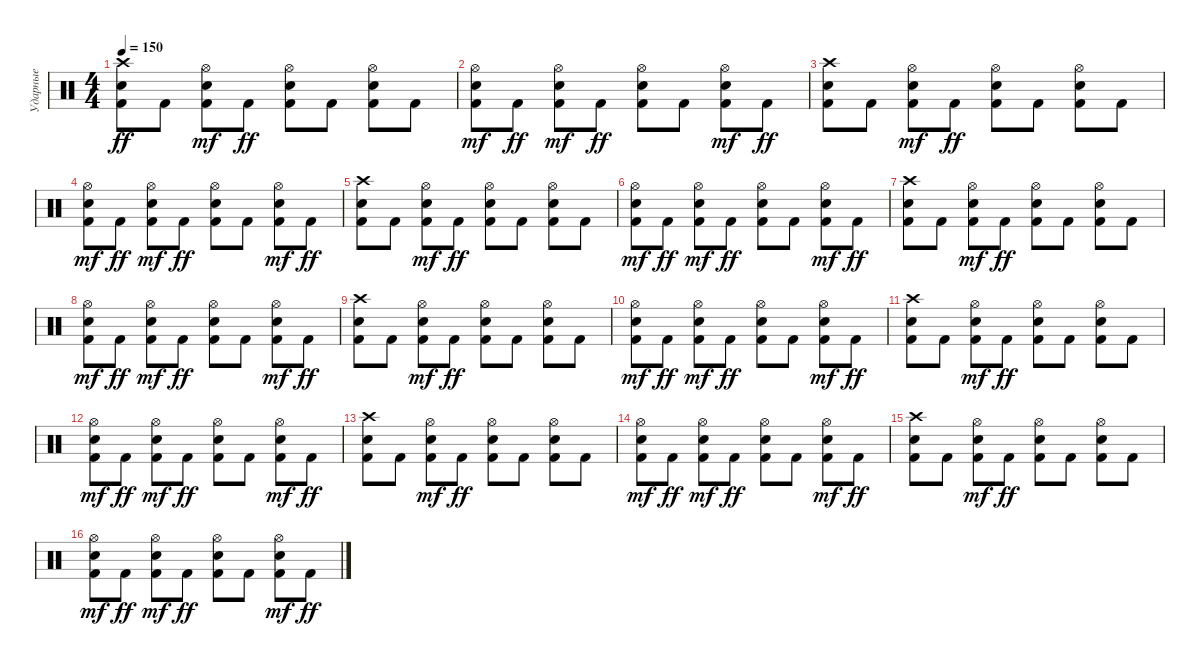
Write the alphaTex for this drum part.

\track ("Ударные" "Ударные") {instrument percussion}
\staff {score}
\articulation defaults
\ts (4 4)
\tempo 150
\clef neutral
\ks c
("Crash high (hit)" "Kick (hit) 2" "Electric Snare (hit)").8{dy ff} "Kick (hit) 2".8 ("Kick (hit) 2" "Electric Snare (hit)" "Hi-Hat (open)").8{dy mf} "Kick (hit) 2".8{dy ff} ("Hi-Hat (open)" "Kick (hit) 2" "Electric Snare (hit)").8 "Kick (hit) 2".8 ("Kick (hit) 2" "Hi-Hat (open)" "Electric Snare (hit)").8 "Kick (hit) 2".8 |
("Kick (hit) 2" "Hi-Hat (open)" "Electric Snare (hit)").8{dy mf} "Kick (hit) 2".8{dy ff} ("Electric Snare (hit)" "Kick (hit) 2" "Hi-Hat (open)").8{dy mf} "Kick (hit) 2".8{dy ff} ("Hi-Hat (open)" "Kick (hit) 2" "Electric Snare (hit)").8 "Kick (hit) 2".8 ("Electric Snare (hit)" "Kick (hit) 2" "Hi-Hat (open)").8{dy mf} "Kick (hit) 2".8{dy ff} |
("Crash high (hit)" "Kick (hit) 2" "Electric Snare (hit)").8 "Kick (hit) 2".8 ("Kick (hit) 2" "Electric Snare (hit)" "Hi-Hat (open)").8{dy mf} "Kick (hit) 2".8{dy ff} ("Hi-Hat (open)" "Kick (hit) 2" "Electric Snare (hit)").8 "Kick (hit) 2".8 ("Kick (hit) 2" "Hi-Hat (open)" "Electric Snare (hit)").8 "Kick (hit) 2".8 |
("Kick (hit) 2" "Hi-Hat (open)" "Electric Snare (hit)").8{dy mf} "Kick (hit) 2".8{dy ff} ("Electric Snare (hit)" "Kick (hit) 2" "Hi-Hat (open)").8{dy mf} "Kick (hit) 2".8{dy ff} ("Hi-Hat (open)" "Kick (hit) 2" "Electric Snare (hit)").8 "Kick (hit) 2".8 ("Electric Snare (hit)" "Kick (hit) 2" "Hi-Hat (open)").8{dy mf} "Kick (hit) 2".8{dy ff} |
("Crash high (hit)" "Kick (hit) 2" "Electric Snare (hit)").8 "Kick (hit) 2".8 ("Kick (hit) 2" "Electric Snare (hit)" "Hi-Hat (open)").8{dy mf} "Kick (hit) 2".8{dy ff} ("Hi-Hat (open)" "Kick (hit) 2" "Electric Snare (hit)").8 "Kick (hit) 2".8 ("Kick (hit) 2" "Hi-Hat (open)" "Electric Snare (hit)").8 "Kick (hit) 2".8 |
("Kick (hit) 2" "Hi-Hat (open)" "Electric Snare (hit)").8{dy mf} "Kick (hit) 2".8{dy ff} ("Electric Snare (hit)" "Kick (hit) 2" "Hi-Hat (open)").8{dy mf} "Kick (hit) 2".8{dy ff} ("Hi-Hat (open)" "Kick (hit) 2" "Electric Snare (hit)").8 "Kick (hit) 2".8 ("Electric Snare (hit)" "Kick (hit) 2" "Hi-Hat (open)").8{dy mf} "Kick (hit) 2".8{dy ff} |
("Crash high (hit)" "Kick (hit) 2" "Electric Snare (hit)").8 "Kick (hit) 2".8 ("Kick (hit) 2" "Electric Snare (hit)" "Hi-Hat (open)").8{dy mf} "Kick (hit) 2".8{dy ff} ("Hi-Hat (open)" "Kick (hit) 2" "Electric Snare (hit)").8 "Kick (hit) 2".8 ("Kick (hit) 2" "Hi-Hat (open)" "Electric Snare (hit)").8 "Kick (hit) 2".8 |
("Kick (hit) 2" "Hi-Hat (open)" "Electric Snare (hit)").8{dy mf} "Kick (hit) 2".8{dy ff} ("Electric Snare (hit)" "Kick (hit) 2" "Hi-Hat (open)").8{dy mf} "Kick (hit) 2".8{dy ff} ("Hi-Hat (open)" "Kick (hit) 2" "Electric Snare (hit)").8 "Kick (hit) 2".8 ("Electric Snare (hit)" "Kick (hit) 2" "Hi-Hat (open)").8{dy mf} "Kick (hit) 2".8{dy ff} |
("Crash high (hit)" "Kick (hit) 2" "Electric Snare (hit)").8 "Kick (hit) 2".8 ("Kick (hit) 2" "Electric Snare (hit)" "Hi-Hat (open)").8{dy mf} "Kick (hit) 2".8{dy ff} ("Hi-Hat (open)" "Kick (hit) 2" "Electric Snare (hit)").8 "Kick (hit) 2".8 ("Kick (hit) 2" "Hi-Hat (open)" "Electric Snare (hit)").8 "Kick (hit) 2".8 |
("Kick (hit) 2" "Hi-Hat (open)" "Electric Snare (hit)").8{dy mf} "Kick (hit) 2".8{dy ff} ("Electric Snare (hit)" "Kick (hit) 2" "Hi-Hat (open)").8{dy mf} "Kick (hit) 2".8{dy ff} ("Hi-Hat (open)" "Kick (hit) 2" "Electric Snare (hit)").8 "Kick (hit) 2".8 ("Electric Snare (hit)" "Kick (hit) 2" "Hi-Hat (open)").8{dy mf} "Kick (hit) 2".8{dy ff} |
("Crash high (hit)" "Kick (hit) 2" "Electric Snare (hit)").8 "Kick (hit) 2".8 ("Kick (hit) 2" "Electric Snare (hit)" "Hi-Hat (open)").8{dy mf} "Kick (hit) 2".8{dy ff} ("Hi-Hat (open)" "Kick (hit) 2" "Electric Snare (hit)").8 "Kick (hit) 2".8 ("Kick (hit) 2" "Hi-Hat (open)" "Electric Snare (hit)").8 "Kick (hit) 2".8 |
("Kick (hit) 2" "Hi-Hat (open)" "Electric Snare (hit)").8{dy mf} "Kick (hit) 2".8{dy ff} ("Electric Snare (hit)" "Kick (hit) 2" "Hi-Hat (open)").8{dy mf} "Kick (hit) 2".8{dy ff} ("Hi-Hat (open)" "Kick (hit) 2" "Electric Snare (hit)").8 "Kick (hit) 2".8 ("Electric Snare (hit)" "Kick (hit) 2" "Hi-Hat (open)").8{dy mf} "Kick (hit) 2".8{dy ff} |
("Crash high (hit)" "Kick (hit) 2" "Electric Snare (hit)").8 "Kick (hit) 2".8 ("Kick (hit) 2" "Electric Snare (hit)" "Hi-Hat (open)").8{dy mf} "Kick (hit) 2".8{dy ff} ("Hi-Hat (open)" "Kick (hit) 2" "Electric Snare (hit)").8 "Kick (hit) 2".8 ("Kick (hit) 2" "Hi-Hat (open)" "Electric Snare (hit)").8 "Kick (hit) 2".8 |
("Kick (hit) 2" "Hi-Hat (open)" "Electric Snare (hit)").8{dy mf} "Kick (hit) 2".8{dy ff} ("Electric Snare (hit)" "Kick (hit) 2" "Hi-Hat (open)").8{dy mf} "Kick (hit) 2".8{dy ff} ("Hi-Hat (open)" "Kick (hit) 2" "Electric Snare (hit)").8 "Kick (hit) 2".8 ("Electric Snare (hit)" "Kick (hit) 2" "Hi-Hat (open)").8{dy mf} "Kick (hit) 2".8{dy ff} |
("Crash high (hit)" "Kick (hit) 2" "Electric Snare (hit)").8 "Kick (hit) 2".8 ("Kick (hit) 2" "Electric Snare (hit)" "Hi-Hat (open)").8{dy mf} "Kick (hit) 2".8{dy ff} ("Hi-Hat (open)" "Kick (hit) 2" "Electric Snare (hit)").8 "Kick (hit) 2".8 ("Kick (hit) 2" "Hi-Hat (open)" "Electric Snare (hit)").8 "Kick (hit) 2".8 |
("Kick (hit) 2" "Hi-Hat (open)" "Electric Snare (hit)").8{dy mf} "Kick (hit) 2".8{dy ff} ("Electric Snare (hit)" "Kick (hit) 2" "Hi-Hat (open)").8{dy mf} "Kick (hit) 2".8{dy ff} ("Hi-Hat (open)" "Kick (hit) 2" "Electric Snare (hit)").8 "Kick (hit) 2".8 ("Electric Snare (hit)" "Kick (hit) 2" "Hi-Hat (open)").8{dy mf} "Kick (hit) 2".8{dy ff}
